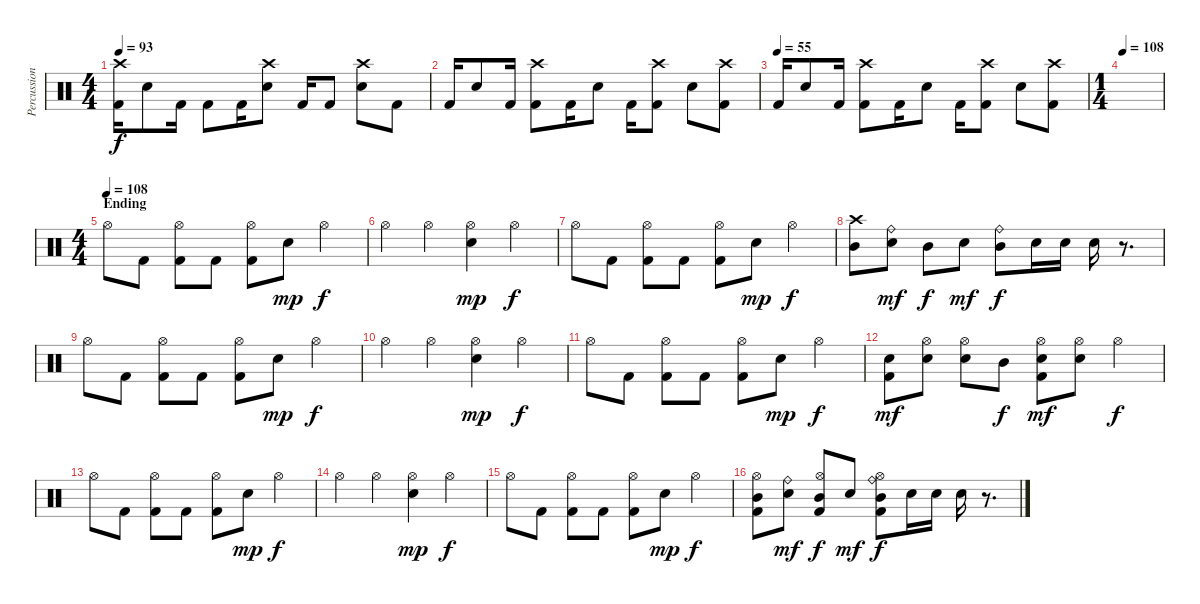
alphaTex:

\track ("Percussion" "Percussion") {instrument percussion}
\staff {score}
\articulation defaults
\ts (4 4)
\tempo 93
\clef neutral
\ks c
("Crash high (hit)" "Kick (hit) 2").16{dy f} "Snare (hit) 2".8 "Kick (hit) 2".16 "Kick (hit) 2".8 "Kick (hit) 2".16 ("Crash high (hit)" "Snare (hit) 2").8 "Kick (hit) 2".16 "Kick (hit) 2".8 ("Crash high (hit)" "Snare (hit) 2").8 "Kick (hit) 2".8 |
"Kick (hit) 2".16 "Snare (hit) 2".8 "Kick (hit) 2".16 ("Crash high (hit)" "Kick (hit) 2").8 "Kick (hit) 2".16 "Snare (hit) 2".8 "Kick (hit) 2".16 ("Crash high (hit)" "Kick (hit) 2").8 "Snare (hit) 2".8 ("Crash high (hit)" "Kick (hit) 2").8 |
\tempo (55)
"Kick (hit) 2".16 "Snare (hit) 2".8 "Kick (hit) 2".16 ("Crash high (hit)" "Kick (hit) 2").8 "Kick (hit) 2".16 "Snare (hit) 2".8 "Kick (hit) 2".16 ("Crash high (hit)" "Kick (hit) 2").8 "Snare (hit) 2".8 ("Crash high (hit)" "Kick (hit) 2").8 |
\ts (1 4)
\tempo 108
|
\ts (4 4)
\section ("" "Ending")
\tempo (108)
"Hi-Hat (open)".8 "Kick (hit) 2".8 ("Hi-Hat (open)" "Kick (hit) 2").8 "Kick (hit) 2".8 ("Hi-Hat (open)" "Kick (hit) 2").8 "Snare (hit) 2".8{dy mp} "Hi-Hat (open)".4{dy f} |
"Hi-Hat (open)".4 "Hi-Hat (open)".4 ("Hi-Hat (open)" "Snare (hit) 2").4{dy mp} "Hi-Hat (open)".4{dy f} |
"Hi-Hat (open)".8 "Kick (hit) 2".8 ("Hi-Hat (open)" "Kick (hit) 2").8 "Kick (hit) 2".8 ("Hi-Hat (open)" "Kick (hit) 2").8 "Snare (hit) 2".8{dy mp} "Hi-Hat (open)".4{dy f} |
("Crash high (hit)" "Mid Tom (hit)").8 ("Ride (bell)" "Snare (hit) 2").8{dy mf} "Mid Tom (hit)".8{dy f} "Snare (hit) 2".8{dy mf} ("Ride (bell)" "Mid Tom (hit)").8{dy f} "Snare (hit) 2".16 "Snare (hit) 2".16 "Snare (hit) 2".16 r.8{d} |
"Hi-Hat (open)".8 "Kick (hit) 2".8 ("Hi-Hat (open)" "Kick (hit) 2").8 "Kick (hit) 2".8 ("Hi-Hat (open)" "Kick (hit) 2").8 "Snare (hit) 2".8{dy mp} "Hi-Hat (open)".4{dy f} |
"Hi-Hat (open)".4 "Hi-Hat (open)".4 ("Hi-Hat (open)" "Snare (hit) 2").4{dy mp} "Hi-Hat (open)".4{dy f} |
"Hi-Hat (open)".8 "Kick (hit) 2".8 ("Hi-Hat (open)" "Kick (hit) 2").8 "Kick (hit) 2".8 ("Hi-Hat (open)" "Kick (hit) 2").8 "Snare (hit) 2".8{dy mp} "Hi-Hat (open)".4{dy f} |
("Snare (hit) 2" "Kick (hit) 2").8{dy mf} ("Hi-Hat (open)" "Snare (hit) 2").8 ("Hi-Hat (open)" "Snare (hit) 2").8 "Mid Tom (hit)".8{dy f} ("Hi-Hat (open)" "Snare (hit) 2" "Kick (hit) 2").8{dy mf} ("Hi-Hat (open)" "Snare (hit) 2").8 "Hi-Hat (open)".4{dy f} |
"Hi-Hat (open)".8 "Kick (hit) 2".8 ("Hi-Hat (open)" "Kick (hit) 2").8 "Kick (hit) 2".8 ("Hi-Hat (open)" "Kick (hit) 2").8 "Snare (hit) 2".8{dy mp} "Hi-Hat (open)".4{dy f} |
"Hi-Hat (open)".4 "Hi-Hat (open)".4 ("Hi-Hat (open)" "Snare (hit) 2").4{dy mp} "Hi-Hat (open)".4{dy f} |
"Hi-Hat (open)".8 "Kick (hit) 2".8 ("Hi-Hat (open)" "Kick (hit) 2").8 "Kick (hit) 2".8 ("Hi-Hat (open)" "Kick (hit) 2").8 "Snare (hit) 2".8{dy mp} "Hi-Hat (open)".4{dy f} |
("Hi-Hat (open)" "Mid Tom (hit)" "Kick (hit) 2").8 ("Ride (bell)" "Snare (hit) 2").8{dy mf} ("Hi-Hat (open)" "Mid Tom (hit)" "Kick (hit) 2").8{dy f} "Snare (hit) 2".8{dy mf} ("Hi-Hat (open)" "Ride (bell)" "Mid Tom (hit)" "Kick (hit) 2").8{dy f} "Snare (hit) 2".16 "Snare (hit) 2".16 "Snare (hit) 2".16 r.8{d}
